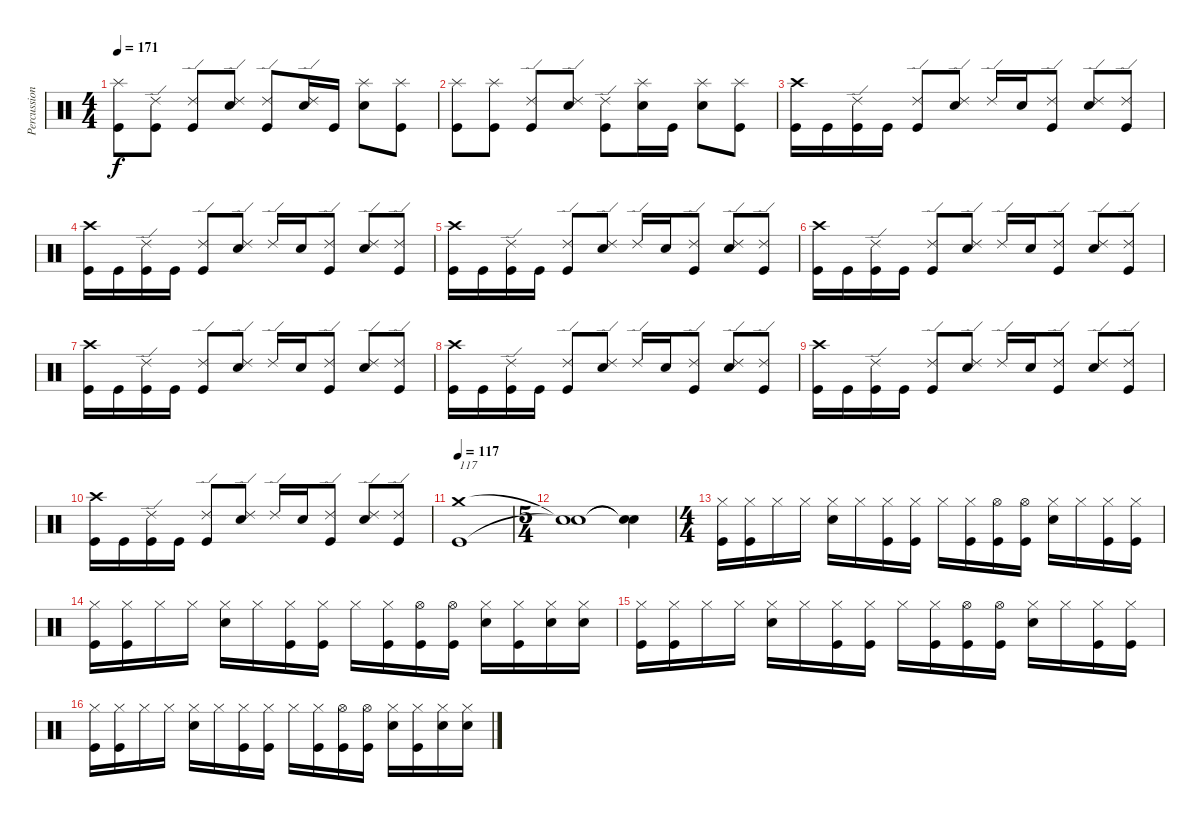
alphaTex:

\track ("Percussions" "Percussion") {instrument percussion}
\staff {score}
\articulation defaults
\ts (4 4)
\tempo 171
\clef neutral
\ks c
("Splash (hit)" "Kick (hit)").8{dy f} ("Ride (edge) 2" "Kick (hit)").8 ("Ride (edge) 2" "Kick (hit)").8 ("Ride (edge) 2" "Snare (hit) 2").8 ("Ride (edge) 2" "Kick (hit)").8 ("Ride (edge) 2" "Snare (hit) 2").16 "Kick (hit)".16 ("Splash (hit)" "Snare (hit) 2").8 ("Splash (hit)" "Kick (hit)").8 |
("Splash (hit)" "Kick (hit)").8 ("Splash (hit)" "Kick (hit)").8 ("Ride (edge) 2" "Kick (hit)").8 ("Ride (edge) 2" "Snare (hit) 2").8 ("Ride (edge) 2" "Kick (hit)").8 ("Splash (hit)" "Snare (hit) 2").16 "Kick (hit)".16 ("Splash (hit)" "Snare (hit) 2").8 ("Splash (hit)" "Kick (hit)").8 |
("Crash high (hit)" "Kick (hit)").16 "Kick (hit)".16 ("Ride (edge) 2" "Kick (hit)").16 "Kick (hit)".16 ("Ride (edge) 2" "Kick (hit)").8 ("Ride (edge) 2" "Snare (hit) 2").8 "Ride (edge) 2".16 "Snare (hit) 2".16 ("Ride (edge) 2" "Kick (hit)").8 ("Ride (edge) 2" "Snare (hit) 2").8 ("Ride (edge) 2" "Kick (hit)").8 |
("Crash high (hit)" "Kick (hit)").16 "Kick (hit)".16 ("Ride (edge) 2" "Kick (hit)").16 "Kick (hit)".16 ("Ride (edge) 2" "Kick (hit)").8 ("Ride (edge) 2" "Snare (hit) 2").8 "Ride (edge) 2".16 "Snare (hit) 2".16 ("Ride (edge) 2" "Kick (hit)").8 ("Ride (edge) 2" "Snare (hit) 2").8 ("Ride (edge) 2" "Kick (hit)").8 |
("Crash high (hit)" "Kick (hit)").16 "Kick (hit)".16 ("Ride (edge) 2" "Kick (hit)").16 "Kick (hit)".16 ("Ride (edge) 2" "Kick (hit)").8 ("Ride (edge) 2" "Snare (hit) 2").8 "Ride (edge) 2".16 "Snare (hit) 2".16 ("Ride (edge) 2" "Kick (hit)").8 ("Ride (edge) 2" "Snare (hit) 2").8 ("Ride (edge) 2" "Kick (hit)").8 |
("Crash high (hit)" "Kick (hit)").16 "Kick (hit)".16 ("Ride (edge) 2" "Kick (hit)").16 "Kick (hit)".16 ("Ride (edge) 2" "Kick (hit)").8 ("Ride (edge) 2" "Snare (hit) 2").8 "Ride (edge) 2".16 "Snare (hit) 2".16 ("Ride (edge) 2" "Kick (hit)").8 ("Ride (edge) 2" "Snare (hit) 2").8 ("Ride (edge) 2" "Kick (hit)").8 |
("Crash high (hit)" "Kick (hit)").16 "Kick (hit)".16 ("Ride (edge) 2" "Kick (hit)").16 "Kick (hit)".16 ("Ride (edge) 2" "Kick (hit)").8 ("Ride (edge) 2" "Snare (hit) 2").8 "Ride (edge) 2".16 "Snare (hit) 2".16 ("Ride (edge) 2" "Kick (hit)").8 ("Ride (edge) 2" "Snare (hit) 2").8 ("Ride (edge) 2" "Kick (hit)").8 |
("Crash high (hit)" "Kick (hit)").16 "Kick (hit)".16 ("Ride (edge) 2" "Kick (hit)").16 "Kick (hit)".16 ("Ride (edge) 2" "Kick (hit)").8 ("Ride (edge) 2" "Snare (hit) 2").8 "Ride (edge) 2".16 "Snare (hit) 2".16 ("Ride (edge) 2" "Kick (hit)").8 ("Ride (edge) 2" "Snare (hit) 2").8 ("Ride (edge) 2" "Kick (hit)").8 |
("Crash high (hit)" "Kick (hit)").16 "Kick (hit)".16 ("Ride (edge) 2" "Kick (hit)").16 "Kick (hit)".16 ("Ride (edge) 2" "Kick (hit)").8 ("Ride (edge) 2" "Snare (hit) 2").8 "Ride (edge) 2".16 "Snare (hit) 2".16 ("Ride (edge) 2" "Kick (hit)").8 ("Ride (edge) 2" "Snare (hit) 2").8 ("Ride (edge) 2" "Kick (hit)").8 |
("Crash high (hit)" "Kick (hit)").16 "Kick (hit)".16 ("Ride (edge) 2" "Kick (hit)").16 "Kick (hit)".16 ("Ride (edge) 2" "Kick (hit)").8 ("Ride (edge) 2" "Snare (hit) 2").8 "Ride (edge) 2".16 "Snare (hit) 2".16 ("Ride (edge) 2" "Kick (hit)").8 ("Ride (edge) 2" "Snare (hit) 2").8 ("Ride (edge) 2" "Kick (hit)").8 |
\tempo 117
("Crash medium (hit)" "Kick (hit)").1{txt "117"} |
\ts (5 4)
("Snare (hit)"{t} "Snare (hit)"{t}).1 ("Snare (hit)"{t} "Snare (hit)"{t}).4 |
\ts (4 4)
("Hi-Hat (closed)" "Kick (hit)").16 ("Hi-Hat (closed)" "Kick (hit)").16 "Hi-Hat (closed)".16 "Hi-Hat (closed)".16 ("Hi-Hat (closed)" "Snare (hit) 2").16 "Hi-Hat (closed)".16 ("Hi-Hat (closed)" "Kick (hit)").16 ("Hi-Hat (closed)" "Kick (hit)").16 "Hi-Hat (closed)".16 ("Hi-Hat (closed)" "Kick (hit)").16 ("Hi-Hat (open)" "Kick (hit)").16 ("Hi-Hat (open)" "Kick (hit)").16 ("Hi-Hat (closed)" "Snare (hit) 2").16 "Hi-Hat (closed)".16 ("Hi-Hat (closed)" "Kick (hit)").16 ("Hi-Hat (closed)" "Kick (hit)").16 |
("Hi-Hat (closed)" "Kick (hit)").16 ("Hi-Hat (closed)" "Kick (hit)").16 "Hi-Hat (closed)".16 "Hi-Hat (closed)".16 ("Hi-Hat (closed)" "Snare (hit) 2").16 "Hi-Hat (closed)".16 ("Hi-Hat (closed)" "Kick (hit)").16 ("Hi-Hat (closed)" "Kick (hit)").16 "Hi-Hat (closed)".16 ("Hi-Hat (closed)" "Kick (hit)").16 ("Hi-Hat (open)" "Kick (hit)").16 ("Hi-Hat (open)" "Kick (hit)").16 ("Hi-Hat (closed)" "Snare (hit) 2").16 ("Hi-Hat (closed)" "Kick (hit)").16 ("Hi-Hat (closed)" "Snare (hit) 2").16 ("Hi-Hat (closed)" "Snare (hit) 2").16 |
("Hi-Hat (closed)" "Kick (hit)").16 ("Hi-Hat (closed)" "Kick (hit)").16 "Hi-Hat (closed)".16 "Hi-Hat (closed)".16 ("Hi-Hat (closed)" "Snare (hit) 2").16 "Hi-Hat (closed)".16 ("Hi-Hat (closed)" "Kick (hit)").16 ("Hi-Hat (closed)" "Kick (hit)").16 "Hi-Hat (closed)".16 ("Hi-Hat (closed)" "Kick (hit)").16 ("Hi-Hat (open)" "Kick (hit)").16 ("Hi-Hat (open)" "Kick (hit)").16 ("Hi-Hat (closed)" "Snare (hit) 2").16 "Hi-Hat (closed)".16 ("Hi-Hat (closed)" "Kick (hit)").16 ("Hi-Hat (closed)" "Kick (hit)").16 |
("Hi-Hat (closed)" "Kick (hit)").16 ("Hi-Hat (closed)" "Kick (hit)").16 "Hi-Hat (closed)".16 "Hi-Hat (closed)".16 ("Hi-Hat (closed)" "Snare (hit) 2").16 "Hi-Hat (closed)".16 ("Hi-Hat (closed)" "Kick (hit)").16 ("Hi-Hat (closed)" "Kick (hit)").16 "Hi-Hat (closed)".16 ("Hi-Hat (closed)" "Kick (hit)").16 ("Hi-Hat (open)" "Kick (hit)").16 ("Hi-Hat (open)" "Kick (hit)").16 ("Hi-Hat (closed)" "Snare (hit) 2").16 ("Hi-Hat (closed)" "Kick (hit)").16 ("Hi-Hat (closed)" "Snare (hit) 2").16 ("Hi-Hat (closed)" "Snare (hit) 2").16
